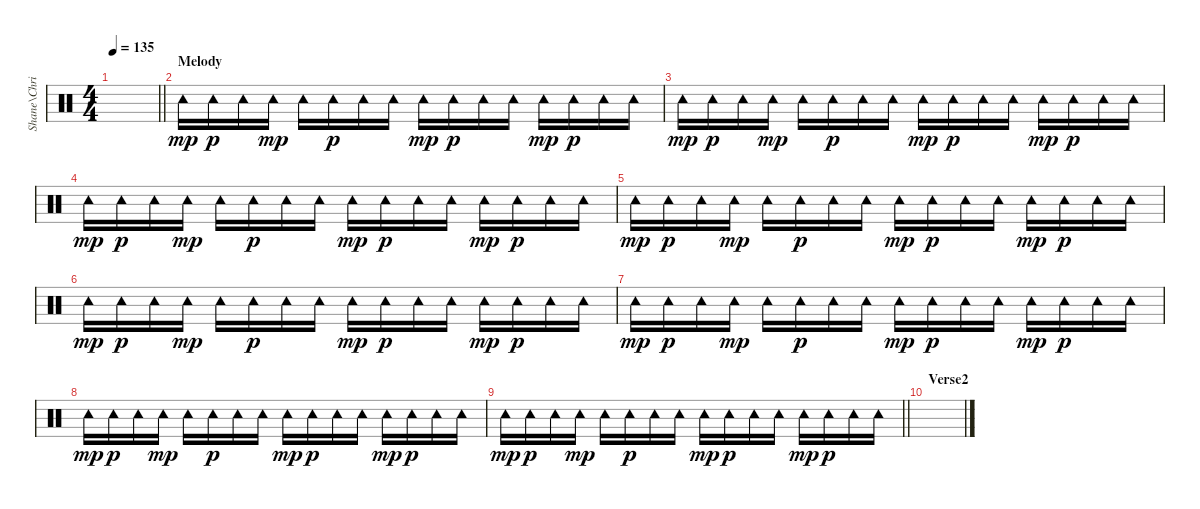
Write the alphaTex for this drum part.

\track ("Shane\\Chris - Percussion" "Shane\\Chri") {instrument percussion}
\staff {score}
\articulation defaults
\ts (4 4)
\tempo 135
\clef neutral
\barLineRight lightlight
\ks c
|
\section ("" "Melody")
"Tambourine (hit)".16{dy mp} "Tambourine (hit)".16{dy p} "Tambourine (hit)".16 "Tambourine (hit)".16{dy mp} "Tambourine (hit)".16 "Tambourine (hit)".16{dy p} "Tambourine (hit)".16 "Tambourine (hit)".16 "Tambourine (hit)".16{dy mp} "Tambourine (hit)".16{dy p} "Tambourine (hit)".16 "Tambourine (hit)".16 "Tambourine (hit)".16{dy mp} "Tambourine (hit)".16{dy p} "Tambourine (hit)".16 "Tambourine (hit)".16 |
"Tambourine (hit)".16{dy mp} "Tambourine (hit)".16{dy p} "Tambourine (hit)".16 "Tambourine (hit)".16{dy mp} "Tambourine (hit)".16 "Tambourine (hit)".16{dy p} "Tambourine (hit)".16 "Tambourine (hit)".16 "Tambourine (hit)".16{dy mp} "Tambourine (hit)".16{dy p} "Tambourine (hit)".16 "Tambourine (hit)".16 "Tambourine (hit)".16{dy mp} "Tambourine (hit)".16{dy p} "Tambourine (hit)".16 "Tambourine (hit)".16 |
"Tambourine (hit)".16{dy mp} "Tambourine (hit)".16{dy p} "Tambourine (hit)".16 "Tambourine (hit)".16{dy mp} "Tambourine (hit)".16 "Tambourine (hit)".16{dy p} "Tambourine (hit)".16 "Tambourine (hit)".16 "Tambourine (hit)".16{dy mp} "Tambourine (hit)".16{dy p} "Tambourine (hit)".16 "Tambourine (hit)".16 "Tambourine (hit)".16{dy mp} "Tambourine (hit)".16{dy p} "Tambourine (hit)".16 "Tambourine (hit)".16 |
"Tambourine (hit)".16{dy mp} "Tambourine (hit)".16{dy p} "Tambourine (hit)".16 "Tambourine (hit)".16{dy mp} "Tambourine (hit)".16 "Tambourine (hit)".16{dy p} "Tambourine (hit)".16 "Tambourine (hit)".16 "Tambourine (hit)".16{dy mp} "Tambourine (hit)".16{dy p} "Tambourine (hit)".16 "Tambourine (hit)".16 "Tambourine (hit)".16{dy mp} "Tambourine (hit)".16{dy p} "Tambourine (hit)".16 "Tambourine (hit)".16 |
"Tambourine (hit)".16{dy mp} "Tambourine (hit)".16{dy p} "Tambourine (hit)".16 "Tambourine (hit)".16{dy mp} "Tambourine (hit)".16 "Tambourine (hit)".16{dy p} "Tambourine (hit)".16 "Tambourine (hit)".16 "Tambourine (hit)".16{dy mp} "Tambourine (hit)".16{dy p} "Tambourine (hit)".16 "Tambourine (hit)".16 "Tambourine (hit)".16{dy mp} "Tambourine (hit)".16{dy p} "Tambourine (hit)".16 "Tambourine (hit)".16 |
"Tambourine (hit)".16{dy mp} "Tambourine (hit)".16{dy p} "Tambourine (hit)".16 "Tambourine (hit)".16{dy mp} "Tambourine (hit)".16 "Tambourine (hit)".16{dy p} "Tambourine (hit)".16 "Tambourine (hit)".16 "Tambourine (hit)".16{dy mp} "Tambourine (hit)".16{dy p} "Tambourine (hit)".16 "Tambourine (hit)".16 "Tambourine (hit)".16{dy mp} "Tambourine (hit)".16{dy p} "Tambourine (hit)".16 "Tambourine (hit)".16 |
"Tambourine (hit)".16{dy mp} "Tambourine (hit)".16{dy p} "Tambourine (hit)".16 "Tambourine (hit)".16{dy mp} "Tambourine (hit)".16 "Tambourine (hit)".16{dy p} "Tambourine (hit)".16 "Tambourine (hit)".16 "Tambourine (hit)".16{dy mp} "Tambourine (hit)".16{dy p} "Tambourine (hit)".16 "Tambourine (hit)".16 "Tambourine (hit)".16{dy mp} "Tambourine (hit)".16{dy p} "Tambourine (hit)".16 "Tambourine (hit)".16 |
\barLineRight lightlight "Tambourine (hit)".16{dy mp} "Tambourine (hit)".16{dy p} "Tambourine (hit)".16 "Tambourine (hit)".16{dy mp} "Tambourine (hit)".16 "Tambourine (hit)".16{dy p} "Tambourine (hit)".16 "Tambourine (hit)".16 "Tambourine (hit)".16{dy mp} "Tambourine (hit)".16{dy p} "Tambourine (hit)".16 "Tambourine (hit)".16 "Tambourine (hit)".16{dy mp} "Tambourine (hit)".16{dy p} "Tambourine (hit)".16 "Tambourine (hit)".16
|
\section ("" "Verse2")
